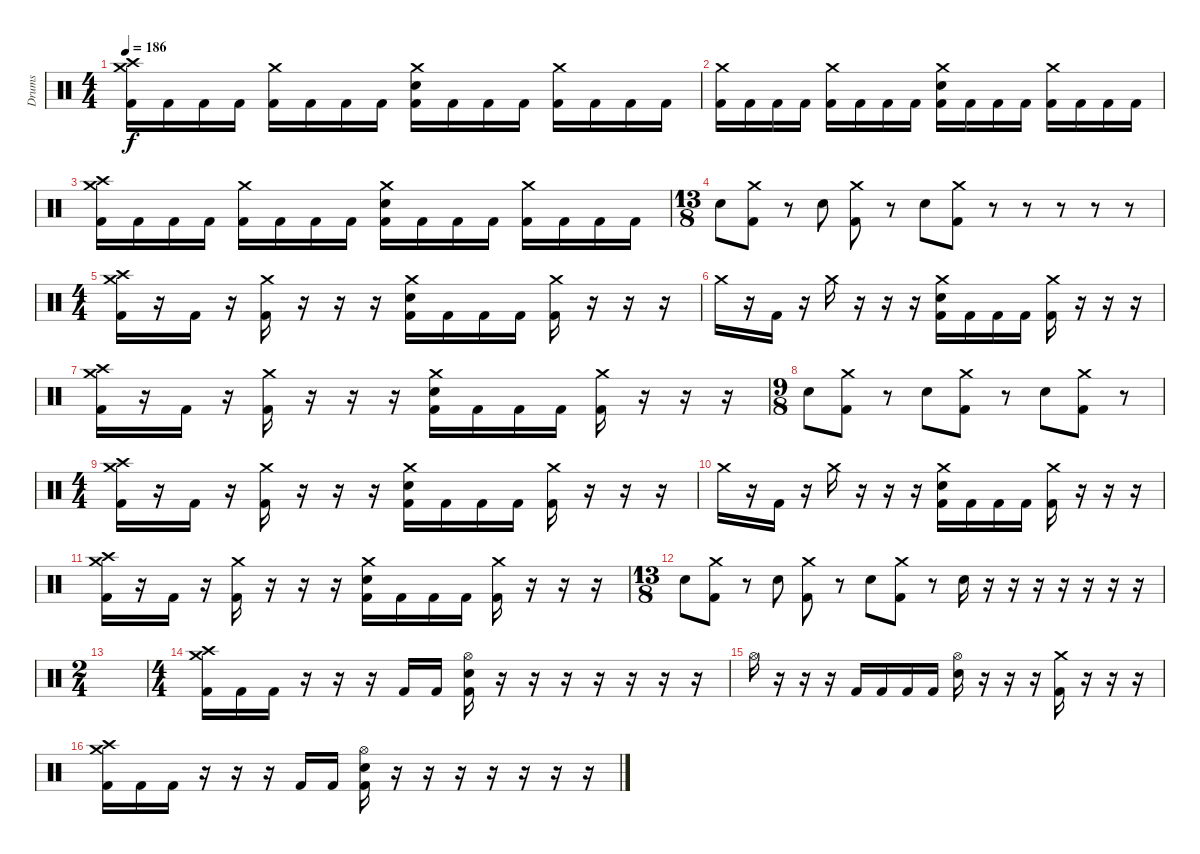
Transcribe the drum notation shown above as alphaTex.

\track ("Drums" "Drums") {instrument percussion}
\staff {score}
\articulation defaults
\ts (4 4)
\tempo 186
\clef neutral
\ks c
("Crash high (hit)" "Crash medium (hit)" "Kick (hit) 2").16{dy f} "Kick (hit) 2".16 "Kick (hit) 2".16 "Kick (hit) 2".16 ("Crash medium (hit)" "Kick (hit) 2").16 "Kick (hit) 2".16 "Kick (hit) 2".16 "Kick (hit) 2".16 ("Crash medium (hit)" "Snare (hit) 2" "Kick (hit) 2").16 "Kick (hit) 2".16 "Kick (hit) 2".16 "Kick (hit) 2".16 ("Crash medium (hit)" "Kick (hit) 2").16 "Kick (hit) 2".16 "Kick (hit) 2".16 "Kick (hit) 2".16 |
("Crash medium (hit)" "Kick (hit) 2").16 "Kick (hit) 2".16 "Kick (hit) 2".16 "Kick (hit) 2".16 ("Crash medium (hit)" "Kick (hit) 2").16 "Kick (hit) 2".16 "Kick (hit) 2".16 "Kick (hit) 2".16 ("Crash medium (hit)" "Snare (hit) 2" "Kick (hit) 2").16 "Kick (hit) 2".16 "Kick (hit) 2".16 "Kick (hit) 2".16 ("Crash medium (hit)" "Kick (hit) 2").16 "Kick (hit) 2".16 "Kick (hit) 2".16 "Kick (hit) 2".16 |
("Crash high (hit)" "Crash medium (hit)" "Kick (hit) 2").16 "Kick (hit) 2".16 "Kick (hit) 2".16 "Kick (hit) 2".16 ("Crash medium (hit)" "Kick (hit) 2").16 "Kick (hit) 2".16 "Kick (hit) 2".16 "Kick (hit) 2".16 ("Crash medium (hit)" "Snare (hit) 2" "Kick (hit) 2").16 "Kick (hit) 2".16 "Kick (hit) 2".16 "Kick (hit) 2".16 ("Crash medium (hit)" "Kick (hit) 2").16 "Kick (hit) 2".16 "Kick (hit) 2".16 "Kick (hit) 2".16 |
\ts (13 8)
"Snare (hit) 2".8 ("Crash medium (hit)" "Kick (hit) 2").8 r.8 "Snare (hit) 2".8 ("Crash medium (hit)" "Kick (hit) 2").8 r.8 "Snare (hit) 2".8 ("Crash medium (hit)" "Kick (hit) 2").8 r.8 r.8 r.8 r.8 r.8 |
\ts (4 4)
("Crash high (hit)" "Crash medium (hit)" "Kick (hit) 2").16 r.16 "Kick (hit) 2".16 r.16 ("Crash medium (hit)" "Kick (hit) 2").16 r.16 r.16 r.16 ("Crash medium (hit)" "Snare (hit) 2" "Kick (hit) 2").16 "Kick (hit) 2".16 "Kick (hit) 2".16 "Kick (hit) 2".16 ("Crash medium (hit)" "Kick (hit) 2").16 r.16 r.16 r.16 |
"Crash medium (hit)".16 r.16 "Kick (hit) 2".16 r.16 "Crash medium (hit)".16 r.16 r.16 r.16 ("Crash medium (hit)" "Snare (hit) 2" "Kick (hit) 2").16 "Kick (hit) 2".16 "Kick (hit) 2".16 "Kick (hit) 2".16 ("Crash medium (hit)" "Kick (hit) 2").16 r.16 r.16 r.16 |
("Crash high (hit)" "Crash medium (hit)" "Kick (hit) 2").16 r.16 "Kick (hit) 2".16 r.16 ("Crash medium (hit)" "Kick (hit) 2").16 r.16 r.16 r.16 ("Crash medium (hit)" "Snare (hit) 2" "Kick (hit) 2").16 "Kick (hit) 2".16 "Kick (hit) 2".16 "Kick (hit) 2".16 ("Crash medium (hit)" "Kick (hit) 2").16 r.16 r.16 r.16 |
\ts (9 8)
"Snare (hit) 2".8 ("Crash medium (hit)" "Kick (hit) 2").8 r.8 "Snare (hit) 2".8 ("Crash medium (hit)" "Kick (hit) 2").8 r.8 "Snare (hit) 2".8 ("Crash medium (hit)" "Kick (hit) 2").8 r.8 |
\ts (4 4)
("Crash high (hit)" "Crash medium (hit)" "Kick (hit) 2").16 r.16 "Kick (hit) 2".16 r.16 ("Crash medium (hit)" "Kick (hit) 2").16 r.16 r.16 r.16 ("Crash medium (hit)" "Snare (hit) 2" "Kick (hit) 2").16 "Kick (hit) 2".16 "Kick (hit) 2".16 "Kick (hit) 2".16 ("Crash medium (hit)" "Kick (hit) 2").16 r.16 r.16 r.16 |
"Crash medium (hit)".16 r.16 "Kick (hit) 2".16 r.16 "Crash medium (hit)".16 r.16 r.16 r.16 ("Crash medium (hit)" "Snare (hit) 2" "Kick (hit) 2").16 "Kick (hit) 2".16 "Kick (hit) 2".16 "Kick (hit) 2".16 ("Crash medium (hit)" "Kick (hit) 2").16 r.16 r.16 r.16 |
("Crash high (hit)" "Crash medium (hit)" "Kick (hit) 2").16 r.16 "Kick (hit) 2".16 r.16 ("Crash medium (hit)" "Kick (hit) 2").16 r.16 r.16 r.16 ("Crash medium (hit)" "Snare (hit) 2" "Kick (hit) 2").16 "Kick (hit) 2".16 "Kick (hit) 2".16 "Kick (hit) 2".16 ("Crash medium (hit)" "Kick (hit) 2").16 r.16 r.16 r.16 |
\ts (13 8)
"Snare (hit) 2".8 ("Crash medium (hit)" "Kick (hit) 2").8 r.8 "Snare (hit) 2".8 ("Crash medium (hit)" "Kick (hit) 2").8 r.8 "Snare (hit) 2".8 ("Crash medium (hit)" "Kick (hit) 2").8 r.8 "Snare (hit) 2".16 r.16 r.16 r.16 r.16 r.16 r.16 r.16 |
\ts (2 4)
|
\ts (4 4)
("Crash high (hit)" "Crash medium (hit)" "Kick (hit) 2").16 "Kick (hit) 2".16 "Kick (hit) 2".16 r.16 r.16 r.16 "Kick (hit) 2".16 "Kick (hit) 2".16 ("Hi-Hat (open)" "Snare (hit) 2" "Kick (hit) 2").16 r.16 r.16 r.16 r.16 r.16 r.16 r.16 |
"Hi-Hat (open)".16 r.16 r.16 r.16 "Kick (hit) 2".16 "Kick (hit) 2".16 "Kick (hit) 2".16 "Kick (hit) 2".16 ("Hi-Hat (open)" "Snare (hit) 2").16 r.16 r.16 r.16 ("Crash medium (hit)" "Kick (hit) 2").16 r.16 r.16 r.16 |
("Crash high (hit)" "Crash medium (hit)" "Kick (hit) 2").16 "Kick (hit) 2".16 "Kick (hit) 2".16 r.16 r.16 r.16 "Kick (hit) 2".16 "Kick (hit) 2".16 ("Hi-Hat (open)" "Snare (hit) 2" "Kick (hit) 2").16 r.16 r.16 r.16 r.16 r.16 r.16 r.16
